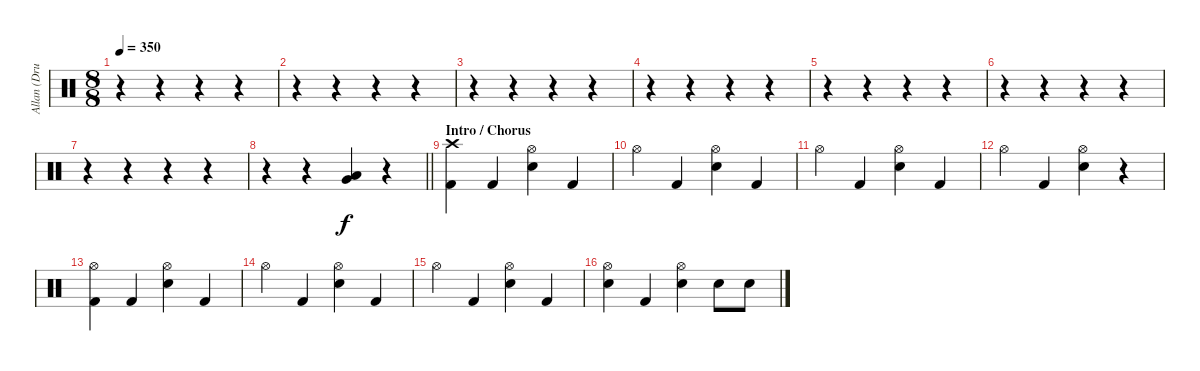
\track ("Allan (Drums)" "Allan (Dru") {solo instrument percussion}
\staff {score}
\articulation defaults
\ts (8 8)
\tempo 350
\clef neutral
\ks c
r.4{dy f} r.4 r.4 r.4 |
r.4 r.4 r.4 r.4 |
r.4 r.4 r.4 r.4 |
r.4 r.4 r.4 r.4 |
r.4 r.4 r.4 r.4 |
r.4 r.4 r.4 r.4 |
r.4 r.4 r.4 r.4 |
\barLineRight lightlight
r.4 r.4 ("Very Low Tom (hit)" "Low Tom (hit)").4 r.4 |
\section ("" "Intro / Chorus")
("Crash high (hit)" "Kick (hit) 2").4 "Kick (hit) 2".4 ("Hi-Hat (open)" "Snare (hit) 2").4 "Kick (hit) 2".4 |
"Hi-Hat (open)".4 "Kick (hit) 2".4 ("Hi-Hat (open)" "Snare (hit) 2").4 "Kick (hit) 2".4 |
"Hi-Hat (open)".4 "Kick (hit) 2".4 ("Hi-Hat (open)" "Snare (hit) 2").4 "Kick (hit) 2".4 |
"Hi-Hat (open)".4 "Kick (hit) 2".4 ("Hi-Hat (open)" "Snare (hit) 2").4 r.4 |
("Hi-Hat (open)" "Kick (hit) 2").4 "Kick (hit) 2".4 ("Hi-Hat (open)" "Snare (hit) 2").4 "Kick (hit) 2".4 |
"Hi-Hat (open)".4 "Kick (hit) 2".4 ("Hi-Hat (open)" "Snare (hit) 2").4 "Kick (hit) 2".4 |
"Hi-Hat (open)".4 "Kick (hit) 2".4 ("Hi-Hat (open)" "Snare (hit) 2").4 "Kick (hit) 2".4 |
("Hi-Hat (open)" "Snare (hit) 2").4 "Kick (hit) 2".4 ("Hi-Hat (open)" "Snare (hit) 2").4 "Snare (hit) 2".8 "Snare (hit) 2".8
